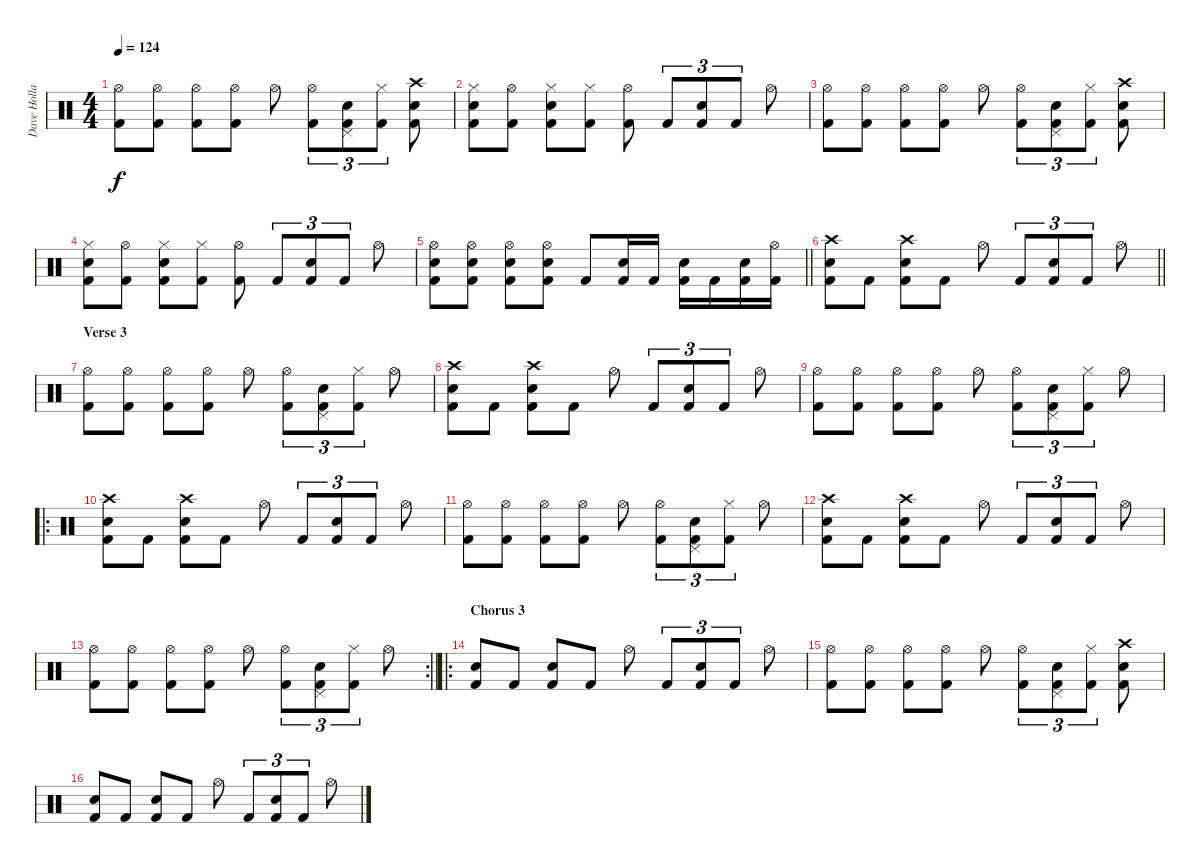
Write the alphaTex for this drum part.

\track ("Dave Holland" "Dave Holla") {instrument percussion}
\staff {score}
\articulation defaults
\ts (4 4)
\tempo 124
\clef neutral
\ks c
("Hi-Hat (open)" "Kick (hit) 2").8{dy f} ("Hi-Hat (open)" "Kick (hit) 2").8 ("Hi-Hat (open)" "Kick (hit) 2").8 ("Hi-Hat (open)" "Kick (hit) 2").8 "Hi-Hat (open)".8 ("Hi-Hat (open)" "Kick (hit) 2").8{tu (3 2)} ("Pedal Hi-Hat (hit)" "Snare (hit) 2" "Kick (hit) 2").8{tu (3 2)} ("Hi-Hat (closed)" "Kick (hit) 2").8{tu (3 2)} ("Crash high (hit)" "Snare (hit) 2" "Kick (hit) 2").8 |
("Hi-Hat (closed)" "Snare (hit) 2" "Kick (hit) 2").8 ("Hi-Hat (open)" "Kick (hit) 2").8 ("Hi-Hat (closed)" "Snare (hit) 2" "Kick (hit) 2").8 ("Hi-Hat (closed)" "Kick (hit) 2").8 ("Hi-Hat (open)" "Kick (hit) 2").8 "Kick (hit) 2".8{tu (3 2)} ("Snare (hit) 2" "Kick (hit) 2").8{tu (3 2)} "Kick (hit) 2".8{tu (3 2)} "Hi-Hat (open)".8 |
("Hi-Hat (open)" "Kick (hit) 2").8 ("Hi-Hat (open)" "Kick (hit) 2").8 ("Hi-Hat (open)" "Kick (hit) 2").8 ("Hi-Hat (open)" "Kick (hit) 2").8 "Hi-Hat (open)".8 ("Hi-Hat (open)" "Kick (hit) 2").8{tu (3 2)} ("Pedal Hi-Hat (hit)" "Snare (hit) 2" "Kick (hit) 2").8{tu (3 2)} ("Hi-Hat (closed)" "Kick (hit) 2").8{tu (3 2)} ("Crash high (hit)" "Snare (hit) 2" "Kick (hit) 2").8 |
("Hi-Hat (closed)" "Snare (hit) 2" "Kick (hit) 2").8 ("Hi-Hat (open)" "Kick (hit) 2").8 ("Hi-Hat (closed)" "Snare (hit) 2" "Kick (hit) 2").8 ("Hi-Hat (closed)" "Kick (hit) 2").8 ("Hi-Hat (open)" "Kick (hit) 2").8 "Kick (hit) 2".8{tu (3 2)} ("Snare (hit) 2" "Kick (hit) 2").8{tu (3 2)} "Kick (hit) 2".8{tu (3 2)} "Hi-Hat (open)".8 |
\barLineRight lightlight
("Hi-Hat (open)" "Snare (hit) 2" "Kick (hit) 2").8 ("Hi-Hat (open)" "Snare (hit) 2" "Kick (hit) 2").8 ("Hi-Hat (open)" "Snare (hit) 2" "Kick (hit) 2").8 ("Hi-Hat (open)" "Snare (hit) 2" "Kick (hit) 2").8 "Kick (hit) 2".8 ("Snare (hit) 2" "Kick (hit) 2").16 "Kick (hit) 2".16 ("Snare (hit) 2" "Kick (hit) 2").16 "Kick (hit) 2".16 ("Snare (hit) 2" "Kick (hit) 2").16 ("Hi-Hat (open)" "Kick (hit) 2").16 |
\barLineRight lightlight
("Crash high (hit)" "Snare (hit) 2" "Kick (hit) 2").8 "Kick (hit) 2".8 ("Crash high (hit)" "Snare (hit) 2" "Kick (hit) 2").8 "Kick (hit) 2".8 "Hi-Hat (open)".8 "Kick (hit) 2".8{tu (3 2)} ("Snare (hit) 2" "Kick (hit) 2").8{tu (3 2)} "Kick (hit) 2".8{tu (3 2)} "Hi-Hat (open)".8 |
\section ("" "Verse 3")
("Hi-Hat (open)" "Kick (hit) 2").8 ("Hi-Hat (open)" "Kick (hit) 2").8 ("Hi-Hat (open)" "Kick (hit) 2").8 ("Hi-Hat (open)" "Kick (hit) 2").8 "Hi-Hat (open)".8 ("Hi-Hat (open)" "Kick (hit) 2").8{tu (3 2)} ("Pedal Hi-Hat (hit)" "Snare (hit) 2" "Kick (hit) 2").8{tu (3 2)} ("Hi-Hat (closed)" "Kick (hit) 2").8{tu (3 2)} "Hi-Hat (open)".8 |
("Crash high (hit)" "Snare (hit) 2" "Kick (hit) 2").8 "Kick (hit) 2".8 ("Crash high (hit)" "Snare (hit) 2" "Kick (hit) 2").8 "Kick (hit) 2".8 "Hi-Hat (open)".8 "Kick (hit) 2".8{tu (3 2)} ("Snare (hit) 2" "Kick (hit) 2").8{tu (3 2)} "Kick (hit) 2".8{tu (3 2)} "Hi-Hat (open)".8 |
("Hi-Hat (open)" "Kick (hit) 2").8 ("Hi-Hat (open)" "Kick (hit) 2").8 ("Hi-Hat (open)" "Kick (hit) 2").8 ("Hi-Hat (open)" "Kick (hit) 2").8 "Hi-Hat (open)".8 ("Hi-Hat (open)" "Kick (hit) 2").8{tu (3 2)} ("Pedal Hi-Hat (hit)" "Snare (hit) 2" "Kick (hit) 2").8{tu (3 2)} ("Hi-Hat (closed)" "Kick (hit) 2").8{tu (3 2)} "Hi-Hat (open)".8 |
\ro
("Crash high (hit)" "Snare (hit) 2" "Kick (hit) 2").8 "Kick (hit) 2".8 ("Crash high (hit)" "Snare (hit) 2" "Kick (hit) 2").8 "Kick (hit) 2".8 "Hi-Hat (open)".8 "Kick (hit) 2".8{tu (3 2)} ("Snare (hit) 2" "Kick (hit) 2").8{tu (3 2)} "Kick (hit) 2".8{tu (3 2)} "Hi-Hat (open)".8 |
("Hi-Hat (open)" "Kick (hit) 2").8 ("Hi-Hat (open)" "Kick (hit) 2").8 ("Hi-Hat (open)" "Kick (hit) 2").8 ("Hi-Hat (open)" "Kick (hit) 2").8 "Hi-Hat (open)".8 ("Hi-Hat (open)" "Kick (hit) 2").8{tu (3 2)} ("Pedal Hi-Hat (hit)" "Snare (hit) 2" "Kick (hit) 2").8{tu (3 2)} ("Hi-Hat (closed)" "Kick (hit) 2").8{tu (3 2)} "Hi-Hat (open)".8 |
("Crash high (hit)" "Snare (hit) 2" "Kick (hit) 2").8 "Kick (hit) 2".8 ("Crash high (hit)" "Snare (hit) 2" "Kick (hit) 2").8 "Kick (hit) 2".8 "Hi-Hat (open)".8 "Kick (hit) 2".8{tu (3 2)} ("Snare (hit) 2" "Kick (hit) 2").8{tu (3 2)} "Kick (hit) 2".8{tu (3 2)} "Hi-Hat (open)".8 |
\rc 2
\barLineRight lightlight
("Hi-Hat (open)" "Kick (hit) 2").8 ("Hi-Hat (open)" "Kick (hit) 2").8 ("Hi-Hat (open)" "Kick (hit) 2").8 ("Hi-Hat (open)" "Kick (hit) 2").8 "Hi-Hat (open)".8 ("Hi-Hat (open)" "Kick (hit) 2").8{tu (3 2)} ("Pedal Hi-Hat (hit)" "Snare (hit) 2" "Kick (hit) 2").8{tu (3 2)} ("Hi-Hat (closed)" "Kick (hit) 2").8{tu (3 2)} "Hi-Hat (open)".8 |
\ro
\section ("" "Chorus 3")
("Snare (hit) 2" "Kick (hit) 2").8 "Kick (hit) 2".8 ("Snare (hit) 2" "Kick (hit) 2").8 "Kick (hit) 2".8 "Hi-Hat (open)".8 "Kick (hit) 2".8{tu (3 2)} ("Snare (hit) 2" "Kick (hit) 2").8{tu (3 2)} "Kick (hit) 2".8{tu (3 2)} "Hi-Hat (open)".8 |
("Hi-Hat (open)" "Kick (hit) 2").8 ("Hi-Hat (open)" "Kick (hit) 2").8 ("Hi-Hat (open)" "Kick (hit) 2").8 ("Hi-Hat (open)" "Kick (hit) 2").8 "Hi-Hat (open)".8 ("Hi-Hat (open)" "Kick (hit) 2").8{tu (3 2)} ("Pedal Hi-Hat (hit)" "Snare (hit) 2" "Kick (hit) 2").8{tu (3 2)} ("Hi-Hat (closed)" "Kick (hit) 2").8{tu (3 2)} ("Crash high (hit)" "Snare (hit) 2" "Kick (hit) 2").8 |
("Snare (hit) 2" "Kick (hit) 2").8 "Kick (hit) 2".8 ("Snare (hit) 2" "Kick (hit) 2").8 "Kick (hit) 2".8 "Hi-Hat (open)".8 "Kick (hit) 2".8{tu (3 2)} ("Snare (hit) 2" "Kick (hit) 2").8{tu (3 2)} "Kick (hit) 2".8{tu (3 2)} "Hi-Hat (open)".8
